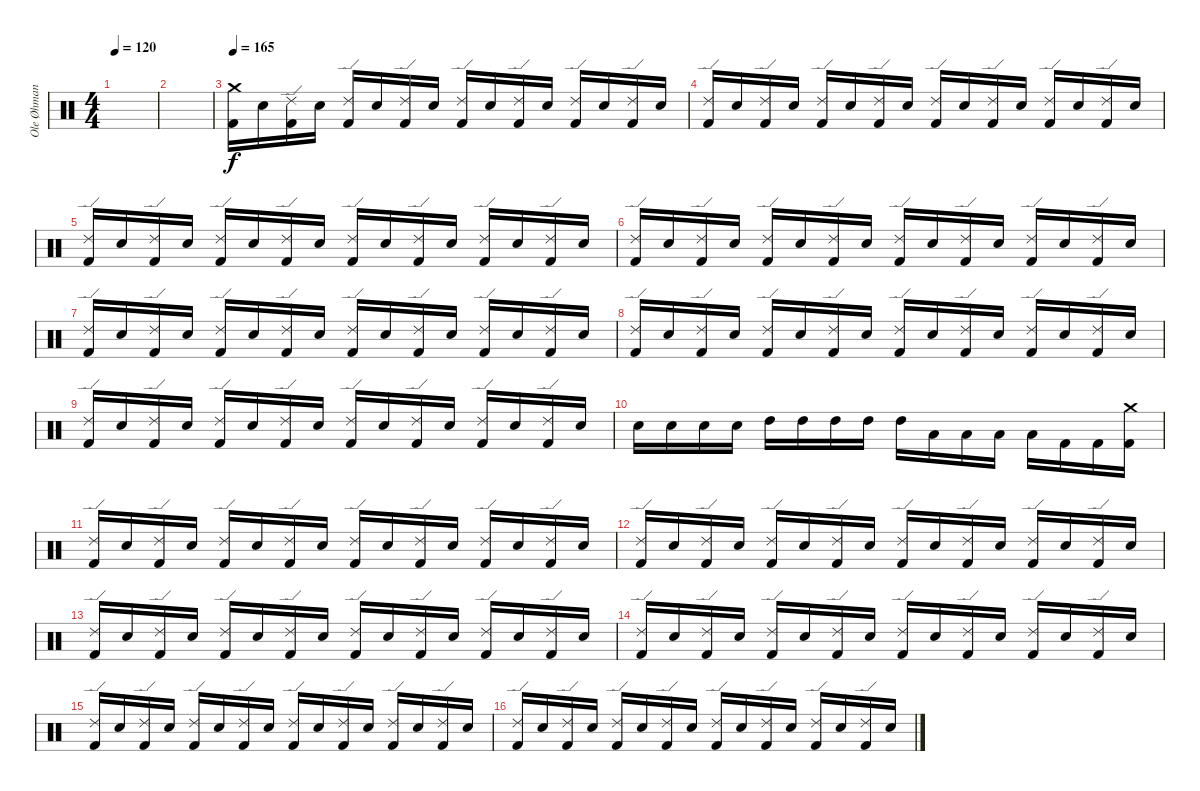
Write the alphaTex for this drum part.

\track ("Ole Øhman (Trommur)" "Ole Øhman ") {instrument percussion}
\staff {score}
\articulation defaults
\ts (4 4)
\tempo 120
\clef neutral
\ks c
|
|
\tempo 165
("Crash medium (hit)" "Kick (hit) 2").16 "Electric Snare (hit)".16 ("Ride (edge) 2" "Kick (hit) 2").16 "Electric Snare (hit)".16 ("Ride (edge) 2" "Kick (hit) 2").16 "Electric Snare (hit)".16 ("Ride (edge) 2" "Kick (hit) 2").16 "Electric Snare (hit)".16 ("Ride (edge) 2" "Kick (hit) 2").16 "Electric Snare (hit)".16 ("Ride (edge) 2" "Kick (hit) 2").16 "Electric Snare (hit)".16 ("Ride (edge) 2" "Kick (hit) 2").16 "Electric Snare (hit)".16 ("Ride (edge) 2" "Kick (hit) 2").16 "Electric Snare (hit)".16 |
("Ride (edge) 2" "Kick (hit) 2").16 "Electric Snare (hit)".16 ("Ride (edge) 2" "Kick (hit) 2").16 "Electric Snare (hit)".16 ("Ride (edge) 2" "Kick (hit) 2").16 "Electric Snare (hit)".16 ("Ride (edge) 2" "Kick (hit) 2").16 "Electric Snare (hit)".16 ("Ride (edge) 2" "Kick (hit) 2").16 "Electric Snare (hit)".16 ("Ride (edge) 2" "Kick (hit) 2").16 "Electric Snare (hit)".16 ("Ride (edge) 2" "Kick (hit) 2").16 "Electric Snare (hit)".16 ("Ride (edge) 2" "Kick (hit) 2").16 "Electric Snare (hit)".16 |
("Ride (edge) 2" "Kick (hit) 2").16 "Electric Snare (hit)".16 ("Ride (edge) 2" "Kick (hit) 2").16 "Electric Snare (hit)".16 ("Ride (edge) 2" "Kick (hit) 2").16 "Electric Snare (hit)".16 ("Ride (edge) 2" "Kick (hit) 2").16 "Electric Snare (hit)".16 ("Ride (edge) 2" "Kick (hit) 2").16 "Electric Snare (hit)".16 ("Ride (edge) 2" "Kick (hit) 2").16 "Electric Snare (hit)".16 ("Ride (edge) 2" "Kick (hit) 2").16 "Electric Snare (hit)".16 ("Ride (edge) 2" "Kick (hit) 2").16 "Electric Snare (hit)".16 |
("Ride (edge) 2" "Kick (hit) 2").16 "Electric Snare (hit)".16 ("Ride (edge) 2" "Kick (hit) 2").16 "Electric Snare (hit)".16 ("Ride (edge) 2" "Kick (hit) 2").16 "Electric Snare (hit)".16 ("Ride (edge) 2" "Kick (hit) 2").16 "Electric Snare (hit)".16 ("Ride (edge) 2" "Kick (hit) 2").16 "Electric Snare (hit)".16 ("Ride (edge) 2" "Kick (hit) 2").16 "Electric Snare (hit)".16 ("Ride (edge) 2" "Kick (hit) 2").16 "Electric Snare (hit)".16 ("Ride (edge) 2" "Kick (hit) 2").16 "Electric Snare (hit)".16 |
("Ride (edge) 2" "Kick (hit) 2").16 "Electric Snare (hit)".16 ("Ride (edge) 2" "Kick (hit) 2").16 "Electric Snare (hit)".16 ("Ride (edge) 2" "Kick (hit) 2").16 "Electric Snare (hit)".16 ("Ride (edge) 2" "Kick (hit) 2").16 "Electric Snare (hit)".16 ("Ride (edge) 2" "Kick (hit) 2").16 "Electric Snare (hit)".16 ("Ride (edge) 2" "Kick (hit) 2").16 "Electric Snare (hit)".16 ("Ride (edge) 2" "Kick (hit) 2").16 "Electric Snare (hit)".16 ("Ride (edge) 2" "Kick (hit) 2").16 "Electric Snare (hit)".16 |
("Ride (edge) 2" "Kick (hit) 2").16 "Electric Snare (hit)".16 ("Ride (edge) 2" "Kick (hit) 2").16 "Electric Snare (hit)".16 ("Ride (edge) 2" "Kick (hit) 2").16 "Electric Snare (hit)".16 ("Ride (edge) 2" "Kick (hit) 2").16 "Electric Snare (hit)".16 ("Ride (edge) 2" "Kick (hit) 2").16 "Electric Snare (hit)".16 ("Ride (edge) 2" "Kick (hit) 2").16 "Electric Snare (hit)".16 ("Ride (edge) 2" "Kick (hit) 2").16 "Electric Snare (hit)".16 ("Ride (edge) 2" "Kick (hit) 2").16 "Electric Snare (hit)".16 |
("Ride (edge) 2" "Kick (hit) 2").16 "Electric Snare (hit)".16 ("Ride (edge) 2" "Kick (hit) 2").16 "Electric Snare (hit)".16 ("Ride (edge) 2" "Kick (hit) 2").16 "Electric Snare (hit)".16 ("Ride (edge) 2" "Kick (hit) 2").16 "Electric Snare (hit)".16 ("Ride (edge) 2" "Kick (hit) 2").16 "Electric Snare (hit)".16 ("Ride (edge) 2" "Kick (hit) 2").16 "Electric Snare (hit)".16 ("Ride (edge) 2" "Kick (hit) 2").16 "Electric Snare (hit)".16 ("Ride (edge) 2" "Kick (hit) 2").16 "Electric Snare (hit)".16 |
"Electric Snare (hit)".16 "Electric Snare (hit)".16 "Electric Snare (hit)".16 "Electric Snare (hit)".16 "High Tom (hit)".16 "High Tom (hit)".16 "High Tom (hit)".16 "High Tom (hit)".16 "High Tom (hit)".16 "Low Tom (hit)".16 "Low Tom (hit)".16 "Low Tom (hit)".16 "Low Tom (hit)".16 "Kick (hit) 2".16 "Kick (hit) 2".16 ("Crash medium (hit)" "Kick (hit) 2").16 |
("Ride (edge) 2" "Kick (hit) 2").16 "Electric Snare (hit)".16 ("Ride (edge) 2" "Kick (hit) 2").16 "Electric Snare (hit)".16 ("Ride (edge) 2" "Kick (hit) 2").16 "Electric Snare (hit)".16 ("Ride (edge) 2" "Kick (hit) 2").16 "Electric Snare (hit)".16 ("Ride (edge) 2" "Kick (hit) 2").16 "Electric Snare (hit)".16 ("Ride (edge) 2" "Kick (hit) 2").16 "Electric Snare (hit)".16 ("Ride (edge) 2" "Kick (hit) 2").16 "Electric Snare (hit)".16 ("Ride (edge) 2" "Kick (hit) 2").16 "Electric Snare (hit)".16 |
("Ride (edge) 2" "Kick (hit) 2").16 "Electric Snare (hit)".16 ("Ride (edge) 2" "Kick (hit) 2").16 "Electric Snare (hit)".16 ("Ride (edge) 2" "Kick (hit) 2").16 "Electric Snare (hit)".16 ("Ride (edge) 2" "Kick (hit) 2").16 "Electric Snare (hit)".16 ("Ride (edge) 2" "Kick (hit) 2").16 "Electric Snare (hit)".16 ("Ride (edge) 2" "Kick (hit) 2").16 "Electric Snare (hit)".16 ("Ride (edge) 2" "Kick (hit) 2").16 "Electric Snare (hit)".16 ("Ride (edge) 2" "Kick (hit) 2").16 "Electric Snare (hit)".16 |
("Ride (edge) 2" "Kick (hit) 2").16 "Electric Snare (hit)".16 ("Ride (edge) 2" "Kick (hit) 2").16 "Electric Snare (hit)".16 ("Ride (edge) 2" "Kick (hit) 2").16 "Electric Snare (hit)".16 ("Ride (edge) 2" "Kick (hit) 2").16 "Electric Snare (hit)".16 ("Ride (edge) 2" "Kick (hit) 2").16 "Electric Snare (hit)".16 ("Ride (edge) 2" "Kick (hit) 2").16 "Electric Snare (hit)".16 ("Ride (edge) 2" "Kick (hit) 2").16 "Electric Snare (hit)".16 ("Ride (edge) 2" "Kick (hit) 2").16 "Electric Snare (hit)".16 |
("Ride (edge) 2" "Kick (hit) 2").16 "Electric Snare (hit)".16 ("Ride (edge) 2" "Kick (hit) 2").16 "Electric Snare (hit)".16 ("Ride (edge) 2" "Kick (hit) 2").16 "Electric Snare (hit)".16 ("Ride (edge) 2" "Kick (hit) 2").16 "Electric Snare (hit)".16 ("Ride (edge) 2" "Kick (hit) 2").16 "Electric Snare (hit)".16 ("Ride (edge) 2" "Kick (hit) 2").16 "Electric Snare (hit)".16 ("Ride (edge) 2" "Kick (hit) 2").16 "Electric Snare (hit)".16 ("Ride (edge) 2" "Kick (hit) 2").16 "Electric Snare (hit)".16 |
("Ride (edge) 2" "Kick (hit) 2").16 "Electric Snare (hit)".16 ("Ride (edge) 2" "Kick (hit) 2").16 "Electric Snare (hit)".16 ("Ride (edge) 2" "Kick (hit) 2").16 "Electric Snare (hit)".16 ("Ride (edge) 2" "Kick (hit) 2").16 "Electric Snare (hit)".16 ("Ride (edge) 2" "Kick (hit) 2").16 "Electric Snare (hit)".16 ("Ride (edge) 2" "Kick (hit) 2").16 "Electric Snare (hit)".16 ("Ride (edge) 2" "Kick (hit) 2").16 "Electric Snare (hit)".16 ("Ride (edge) 2" "Kick (hit) 2").16 "Electric Snare (hit)".16 |
("Ride (edge) 2" "Kick (hit) 2").16 "Electric Snare (hit)".16 ("Ride (edge) 2" "Kick (hit) 2").16 "Electric Snare (hit)".16 ("Ride (edge) 2" "Kick (hit) 2").16 "Electric Snare (hit)".16 ("Ride (edge) 2" "Kick (hit) 2").16 "Electric Snare (hit)".16 ("Ride (edge) 2" "Kick (hit) 2").16 "Electric Snare (hit)".16 ("Ride (edge) 2" "Kick (hit) 2").16 "Electric Snare (hit)".16 ("Ride (edge) 2" "Kick (hit) 2").16 "Electric Snare (hit)".16 ("Ride (edge) 2" "Kick (hit) 2").16 "Electric Snare (hit)".16
